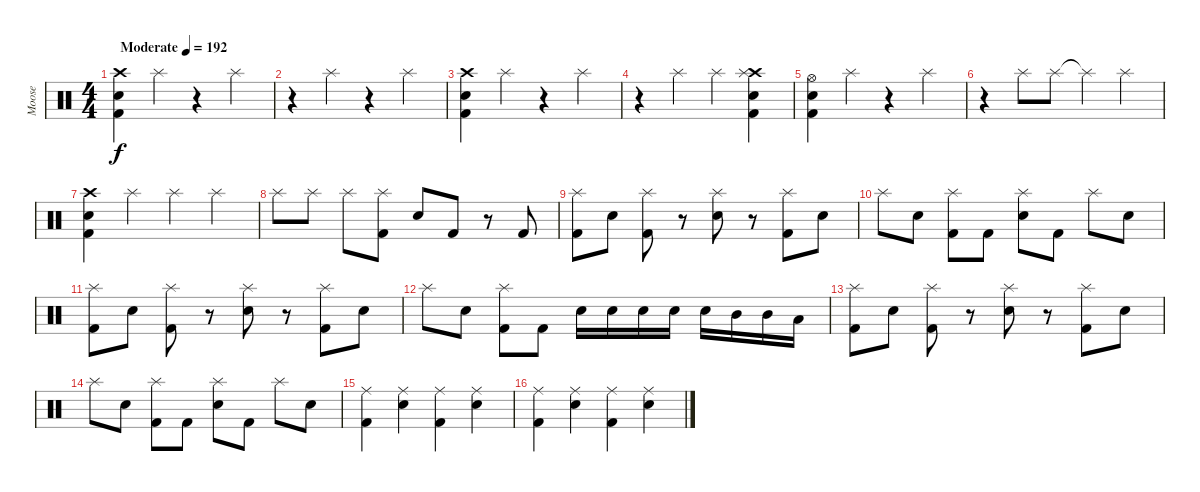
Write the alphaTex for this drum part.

\track ("Moose" "Moose") {instrument percussion}
\staff {score}
\articulation defaults
\ts (4 4)
\tempo (192 "Moderate")
\clef neutral
\ks c
("Kick (hit) 2" "Snare (hit) 2" "Crash high (hit)").4{dy f} "Splash (hit)".4 r.4 "Splash (hit)".4 |
r.4 "Splash (hit)".4 r.4 "Splash (hit)".4 |
("Kick (hit) 2" "Snare (hit) 2" "Crash high (hit)").4 "Splash (hit)".4 r.4 "Splash (hit)".4 |
r.4 "Splash (hit)".4 "Splash (hit)".4 ("Kick (hit) 2" "Snare (hit) 2" "Crash high (hit)" "Splash (hit)").4 |
("Kick (hit) 2" "Snare (hit) 2" "Hi-Hat (open)").4 "Splash (hit)".4 r.4 "Splash (hit)".4 |
r.4 "Splash (hit)".8 "Splash (hit)".8 "Splash (hit)"{t}.4 "Splash (hit)".4 |
("Kick (hit) 2" "Snare (hit) 2" "Crash high (hit)").4 "Splash (hit)".4 "Splash (hit)".4 "Splash (hit)".4 |
"Splash (hit)".8 "Splash (hit)".8 "Splash (hit)".8 ("Splash (hit)" "Kick (hit) 2").8 "Snare (hit) 2".8 "Kick (hit) 2".8 r.8 "Kick (hit) 2".8 |
("Kick (hit) 2" "Splash (hit)").8 "Snare (hit) 2".8 ("Kick (hit) 2" "Splash (hit)").8 r.8 ("Electric Snare (hit)" "Splash (hit)").8 r.8 ("Kick (hit) 2" "Splash (hit)").8 "Snare (hit) 2".8 |
"Splash (hit)".8 "Snare (hit) 2".8 ("Kick (hit) 2" "Splash (hit)").8 "Kick (hit) 2".8 ("Electric Snare (hit)" "Splash (hit)").8 "Kick (hit) 2".8 "Splash (hit)".8 "Snare (hit) 2".8 |
("Kick (hit) 2" "Splash (hit)").8 "Snare (hit) 2".8 ("Kick (hit) 2" "Splash (hit)").8 r.8 ("Electric Snare (hit)" "Splash (hit)").8 r.8 ("Kick (hit) 2" "Splash (hit)").8 "Snare (hit) 2".8 |
"Splash (hit)".8 "Snare (hit) 2".8 ("Kick (hit) 2" "Splash (hit)").8 "Kick (hit) 2".8 "Electric Snare (hit)".16 "Electric Snare (hit)".16 "Electric Snare (hit)".16 "Snare (hit) 2".16 "Snare (hit) 2".16 "Mid Tom (hit)".16 "Mid Tom (hit)".16 "Low Tom (hit)".16 |
("Kick (hit) 2" "Splash (hit)").8 "Snare (hit) 2".8 ("Kick (hit) 2" "Splash (hit)").8 r.8 ("Electric Snare (hit)" "Splash (hit)").8 r.8 ("Kick (hit) 2" "Splash (hit)").8 "Snare (hit) 2".8 |
"Splash (hit)".8 "Snare (hit) 2".8 ("Kick (hit) 2" "Splash (hit)").8 "Kick (hit) 2".8 ("Electric Snare (hit)" "Splash (hit)").8 "Kick (hit) 2".8 "Splash (hit)".8 "Snare (hit) 2".8 |
("Kick (hit) 2" "Ride (middle)").4 ("Snare (hit) 2" "Ride (middle)").4 ("Kick (hit) 2" "Ride (middle)").4 ("Snare (hit) 2" "Ride (middle)").4 |
("Kick (hit) 2" "Ride (middle)").4 ("Snare (hit) 2" "Ride (middle)").4 ("Kick (hit) 2" "Ride (middle)").4 ("Snare (hit) 2" "Ride (middle)").4
